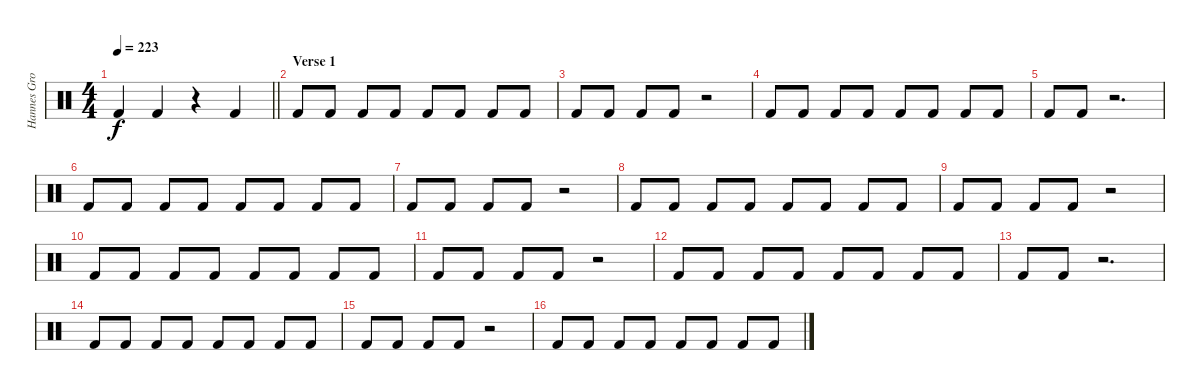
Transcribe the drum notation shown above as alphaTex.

\track ("Hannes Grossmann" "Hannes Gro") {instrument percussion}
\staff {score}
\articulation defaults
\ts (4 4)
\tempo 223
\clef neutral
\barLineRight lightlight
\ks c "Kick (hit) 2".4{dy f} "Kick (hit) 2".4
r.4 "Kick (hit) 2".4 |
\section ("" "Verse 1")
"Kick (hit) 2".8 "Kick (hit) 2".8 "Kick (hit) 2".8 "Kick (hit) 2".8 "Kick (hit) 2".8 "Kick (hit) 2".8 "Kick (hit) 2".8 "Kick (hit) 2".8 |
"Kick (hit) 2".8 "Kick (hit) 2".8 "Kick (hit) 2".8 "Kick (hit) 2".8 r.2 |
"Kick (hit) 2".8 "Kick (hit) 2".8 "Kick (hit) 2".8 "Kick (hit) 2".8 "Kick (hit) 2".8 "Kick (hit) 2".8 "Kick (hit) 2".8 "Kick (hit) 2".8 |
"Kick (hit) 2".8 "Kick (hit) 2".8 r.2{d} |
"Kick (hit) 2".8 "Kick (hit) 2".8 "Kick (hit) 2".8 "Kick (hit) 2".8 "Kick (hit) 2".8 "Kick (hit) 2".8 "Kick (hit) 2".8 "Kick (hit) 2".8 |
"Kick (hit) 2".8 "Kick (hit) 2".8 "Kick (hit) 2".8 "Kick (hit) 2".8 r.2 |
"Kick (hit) 2".8 "Kick (hit) 2".8 "Kick (hit) 2".8 "Kick (hit) 2".8 "Kick (hit) 2".8 "Kick (hit) 2".8 "Kick (hit) 2".8 "Kick (hit) 2".8 |
"Kick (hit) 2".8 "Kick (hit) 2".8 "Kick (hit) 2".8 "Kick (hit) 2".8 r.2 |
"Kick (hit) 2".8 "Kick (hit) 2".8 "Kick (hit) 2".8 "Kick (hit) 2".8 "Kick (hit) 2".8 "Kick (hit) 2".8 "Kick (hit) 2".8 "Kick (hit) 2".8 |
"Kick (hit) 2".8 "Kick (hit) 2".8 "Kick (hit) 2".8 "Kick (hit) 2".8 r.2 |
"Kick (hit) 2".8 "Kick (hit) 2".8 "Kick (hit) 2".8 "Kick (hit) 2".8 "Kick (hit) 2".8 "Kick (hit) 2".8 "Kick (hit) 2".8 "Kick (hit) 2".8 |
"Kick (hit) 2".8 "Kick (hit) 2".8 r.2{d} |
"Kick (hit) 2".8 "Kick (hit) 2".8 "Kick (hit) 2".8 "Kick (hit) 2".8 "Kick (hit) 2".8 "Kick (hit) 2".8 "Kick (hit) 2".8 "Kick (hit) 2".8 |
"Kick (hit) 2".8 "Kick (hit) 2".8 "Kick (hit) 2".8 "Kick (hit) 2".8 r.2 |
"Kick (hit) 2".8 "Kick (hit) 2".8 "Kick (hit) 2".8 "Kick (hit) 2".8 "Kick (hit) 2".8 "Kick (hit) 2".8 "Kick (hit) 2".8 "Kick (hit) 2".8
